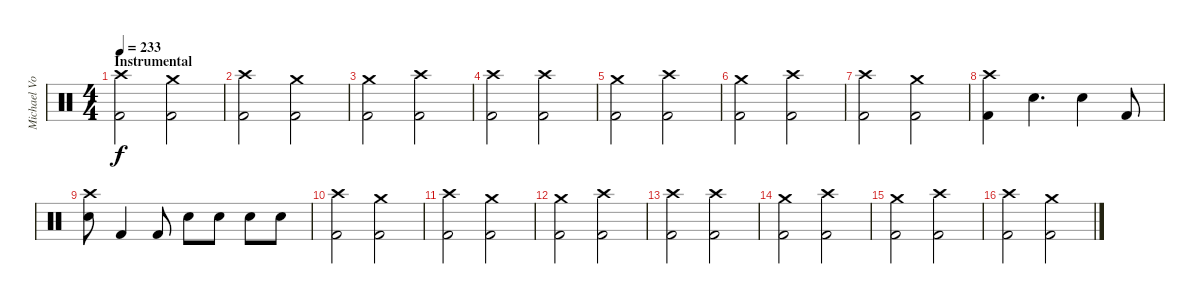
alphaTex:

\track ("Michael Von Knorring" "Michael Vo") {instrument percussion}
\staff {score}
\articulation defaults
\ts (4 4)
\section ("" "Instrumental")
\tempo 233
\clef neutral
\ks c
("Crash high (hit)" "Kick (hit) 2").2{dy f} ("Crash medium (hit)" "Kick (hit) 2").2 |
("Crash high (hit)" "Kick (hit) 2").2 ("Crash medium (hit)" "Kick (hit) 2").2 |
("Crash medium (hit)" "Kick (hit) 2").2 ("Crash high (hit)" "Kick (hit) 2").2 |
("Crash high (hit)" "Kick (hit) 2").2 ("Crash high (hit)" "Kick (hit) 2").2 |
("Crash medium (hit)" "Kick (hit) 2").2 ("Crash high (hit)" "Kick (hit) 2").2 |
("Crash medium (hit)" "Kick (hit) 2").2 ("Crash high (hit)" "Kick (hit) 2").2 |
("Crash high (hit)" "Kick (hit) 2").2 ("Crash medium (hit)" "Kick (hit) 2").2 |
("Crash high (hit)" "Kick (hit) 2").4 "Snare (hit) 2".4{d} "Snare (hit) 2".4 "Kick (hit) 2".8 |
("Crash high (hit)" "Snare (hit) 2").8 "Kick (hit) 2".4 "Kick (hit) 2".8 "Snare (hit) 2".8 "Snare (hit) 2".8 "Snare (hit) 2".8 "Snare (hit) 2".8 |
("Crash high (hit)" "Kick (hit) 2").2 ("Crash medium (hit)" "Kick (hit) 2").2 |
("Crash high (hit)" "Kick (hit) 2").2 ("Crash medium (hit)" "Kick (hit) 2").2 |
("Crash medium (hit)" "Kick (hit) 2").2 ("Crash high (hit)" "Kick (hit) 2").2 |
("Crash high (hit)" "Kick (hit) 2").2 ("Crash high (hit)" "Kick (hit) 2").2 |
("Crash medium (hit)" "Kick (hit) 2").2 ("Crash high (hit)" "Kick (hit) 2").2 |
("Crash medium (hit)" "Kick (hit) 2").2 ("Crash high (hit)" "Kick (hit) 2").2 |
("Crash high (hit)" "Kick (hit) 2").2 ("Crash medium (hit)" "Kick (hit) 2").2
